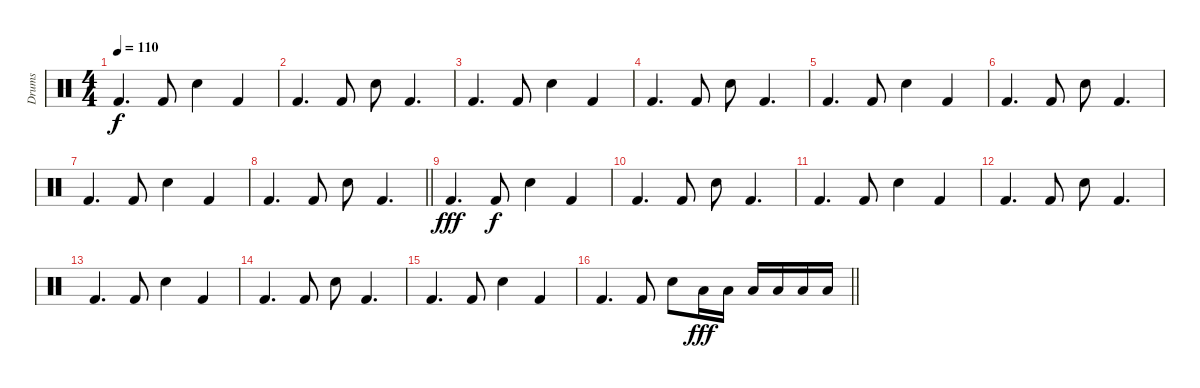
\track ("Drums" "Drums") {instrument percussion}
\staff {score}
\articulation defaults
\ts (4 4)
\tempo 110
\clef neutral
\ks c "Kick (hit) 2".4{d dy f} "Kick (hit) 2".8 "Electric Snare (hit)".4 "Kick (hit) 2".4
|
"Kick (hit) 2".4{d} "Kick (hit) 2".8 "Electric Snare (hit)".8 "Kick (hit) 2".4{d} |
"Kick (hit) 2".4{d} "Kick (hit) 2".8 "Electric Snare (hit)".4 "Kick (hit) 2".4 |
"Kick (hit) 2".4{d} "Kick (hit) 2".8 "Electric Snare (hit)".8 "Kick (hit) 2".4{d} |
"Kick (hit) 2".4{d} "Kick (hit) 2".8 "Electric Snare (hit)".4 "Kick (hit) 2".4 |
"Kick (hit) 2".4{d} "Kick (hit) 2".8 "Electric Snare (hit)".8 "Kick (hit) 2".4{d} |
"Kick (hit) 2".4{d} "Kick (hit) 2".8 "Electric Snare (hit)".4 "Kick (hit) 2".4 |
\barLineRight lightlight "Kick (hit) 2".4{d} "Kick (hit) 2".8 "Electric Snare (hit)".8 "Kick (hit) 2".4{d}
|
"Kick (hit) 2".4{d dy fff} "Kick (hit) 2".8{dy f} "Electric Snare (hit)".4 "Kick (hit) 2".4 |
"Kick (hit) 2".4{d} "Kick (hit) 2".8 "Electric Snare (hit)".8 "Kick (hit) 2".4{d} |
"Kick (hit) 2".4{d} "Kick (hit) 2".8 "Electric Snare (hit)".4 "Kick (hit) 2".4 |
"Kick (hit) 2".4{d} "Kick (hit) 2".8 "Electric Snare (hit)".8 "Kick (hit) 2".4{d} |
"Kick (hit) 2".4{d} "Kick (hit) 2".8 "Electric Snare (hit)".4 "Kick (hit) 2".4 |
"Kick (hit) 2".4{d} "Kick (hit) 2".8 "Electric Snare (hit)".8 "Kick (hit) 2".4{d} |
"Kick (hit) 2".4{d} "Kick (hit) 2".8 "Electric Snare (hit)".4 "Kick (hit) 2".4 |
\barLineRight lightlight "Kick (hit) 2".4{d} "Kick (hit) 2".8 "Electric Snare (hit)".8 "Low Tom (hit)".16{dy fff} "Low Tom (hit)".16 "Low Tom (hit)".16 "Low Tom (hit)".16 "Low Tom (hit)".16 "Low Tom (hit)".16
